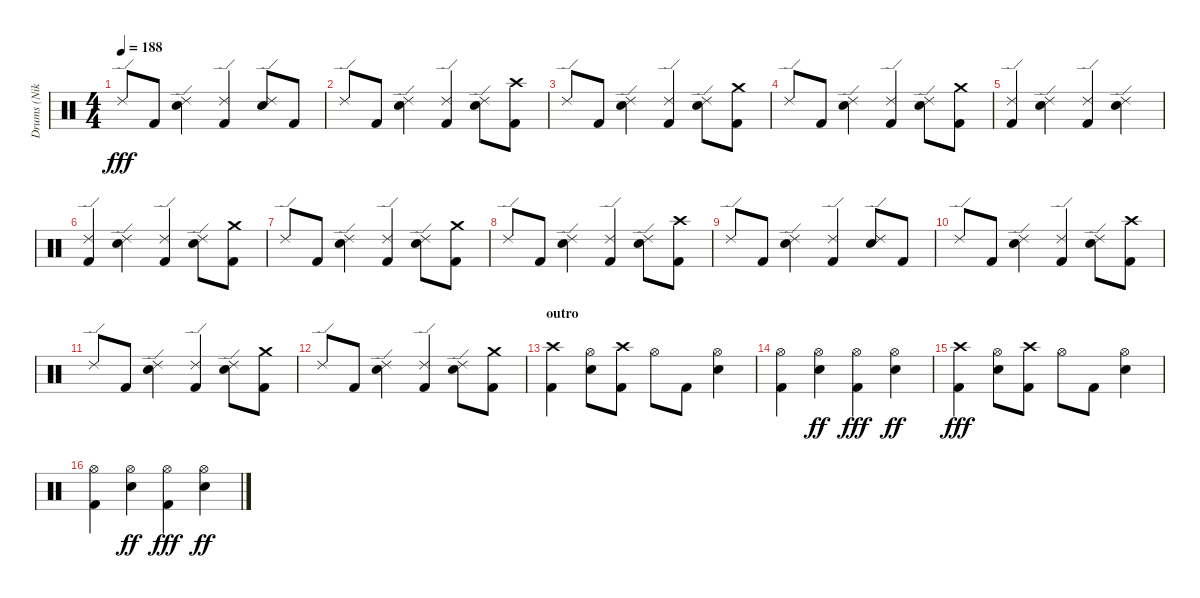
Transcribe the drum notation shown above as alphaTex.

\track ("Drums (Niko)" "Drums (Nik") {instrument percussion}
\staff {score}
\articulation defaults
\ts (4 4)
\tempo 188
\clef neutral
\ks c "Ride (edge) 2".8{dy fff} "Kick (hit) 2".8
("Ride (edge) 2" "Electric Snare (hit)").4 ("Ride (edge) 2" "Kick (hit) 2").4 ("Ride (edge) 2" "Electric Snare (hit)").8 "Kick (hit) 2".8 |
"Ride (edge) 2".8 "Kick (hit) 2".8 ("Ride (edge) 2" "Electric Snare (hit)").4 ("Ride (edge) 2" "Kick (hit) 2").4 ("Ride (edge) 2" "Electric Snare (hit)").8 ("Crash high (hit)" "Kick (hit) 2").8 |
"Ride (edge) 2".8 "Kick (hit) 2".8 ("Ride (edge) 2" "Electric Snare (hit)").4 ("Ride (edge) 2" "Kick (hit) 2").4 ("Ride (edge) 2" "Electric Snare (hit)").8 ("Crash medium (hit)" "Kick (hit) 2").8 |
"Ride (edge) 2".8 "Kick (hit) 2".8 ("Ride (edge) 2" "Electric Snare (hit)").4 ("Ride (edge) 2" "Kick (hit) 2").4 ("Ride (edge) 2" "Electric Snare (hit)").8 ("Crash medium (hit)" "Kick (hit) 2").8 |
("Ride (edge) 2" "Kick (hit) 2").4 ("Ride (edge) 2" "Electric Snare (hit)").4 ("Ride (edge) 2" "Kick (hit) 2").4 ("Ride (edge) 2" "Electric Snare (hit)").4 |
("Ride (edge) 2" "Kick (hit) 2").4 ("Ride (edge) 2" "Electric Snare (hit)").4 ("Ride (edge) 2" "Kick (hit) 2").4 ("Ride (edge) 2" "Electric Snare (hit)").8 ("Crash medium (hit)" "Kick (hit) 2").8 |
"Ride (edge) 2".8 "Kick (hit) 2".8 ("Ride (edge) 2" "Electric Snare (hit)").4 ("Ride (edge) 2" "Kick (hit) 2").4 ("Ride (edge) 2" "Electric Snare (hit)").8 ("Crash medium (hit)" "Kick (hit) 2").8 |
"Ride (edge) 2".8 "Kick (hit) 2".8 ("Ride (edge) 2" "Electric Snare (hit)").4 ("Ride (edge) 2" "Kick (hit) 2").4 ("Ride (edge) 2" "Electric Snare (hit)").8 ("Crash high (hit)" "Kick (hit) 2").8 |
"Ride (edge) 2".8 "Kick (hit) 2".8 ("Ride (edge) 2" "Electric Snare (hit)").4 ("Ride (edge) 2" "Kick (hit) 2").4 ("Ride (edge) 2" "Electric Snare (hit)").8 "Kick (hit) 2".8 |
"Ride (edge) 2".8 "Kick (hit) 2".8 ("Ride (edge) 2" "Electric Snare (hit)").4 ("Ride (edge) 2" "Kick (hit) 2").4 ("Ride (edge) 2" "Electric Snare (hit)").8 ("Crash high (hit)" "Kick (hit) 2").8 |
"Ride (edge) 2".8 "Kick (hit) 2".8 ("Ride (edge) 2" "Electric Snare (hit)").4 ("Ride (edge) 2" "Kick (hit) 2").4 ("Ride (edge) 2" "Electric Snare (hit)").8 ("Crash medium (hit)" "Kick (hit) 2").8 |
"Ride (edge) 2".8 "Kick (hit) 2".8 ("Ride (edge) 2" "Electric Snare (hit)").4 ("Ride (edge) 2" "Kick (hit) 2").4 ("Ride (edge) 2" "Electric Snare (hit)").8 ("Crash medium (hit)" "Kick (hit) 2").8 |
\section ("" "outro")
("Crash high (hit)" "Kick (hit) 2").4 ("Hi-Hat (open)" "Electric Snare (hit)").8 ("Crash high (hit)" "Kick (hit) 2").8 "Hi-Hat (open)".8 "Kick (hit) 2".8 ("Hi-Hat (open)" "Electric Snare (hit)").4 |
("Hi-Hat (open)" "Kick (hit) 2").4 ("Hi-Hat (open)" "Electric Snare (hit)").4{dy ff} ("Hi-Hat (open)" "Kick (hit) 2").4{dy fff} ("Hi-Hat (open)" "Electric Snare (hit)").4{dy ff} |
("Crash high (hit)" "Kick (hit) 2").4{dy fff} ("Hi-Hat (open)" "Electric Snare (hit)").8 ("Crash high (hit)" "Kick (hit) 2").8 "Hi-Hat (open)".8 "Kick (hit) 2".8 ("Hi-Hat (open)" "Electric Snare (hit)").4 |
("Hi-Hat (open)" "Kick (hit) 2").4 ("Hi-Hat (open)" "Electric Snare (hit)").4{dy ff} ("Hi-Hat (open)" "Kick (hit) 2").4{dy fff} ("Hi-Hat (open)" "Electric Snare (hit)").4{dy ff}
